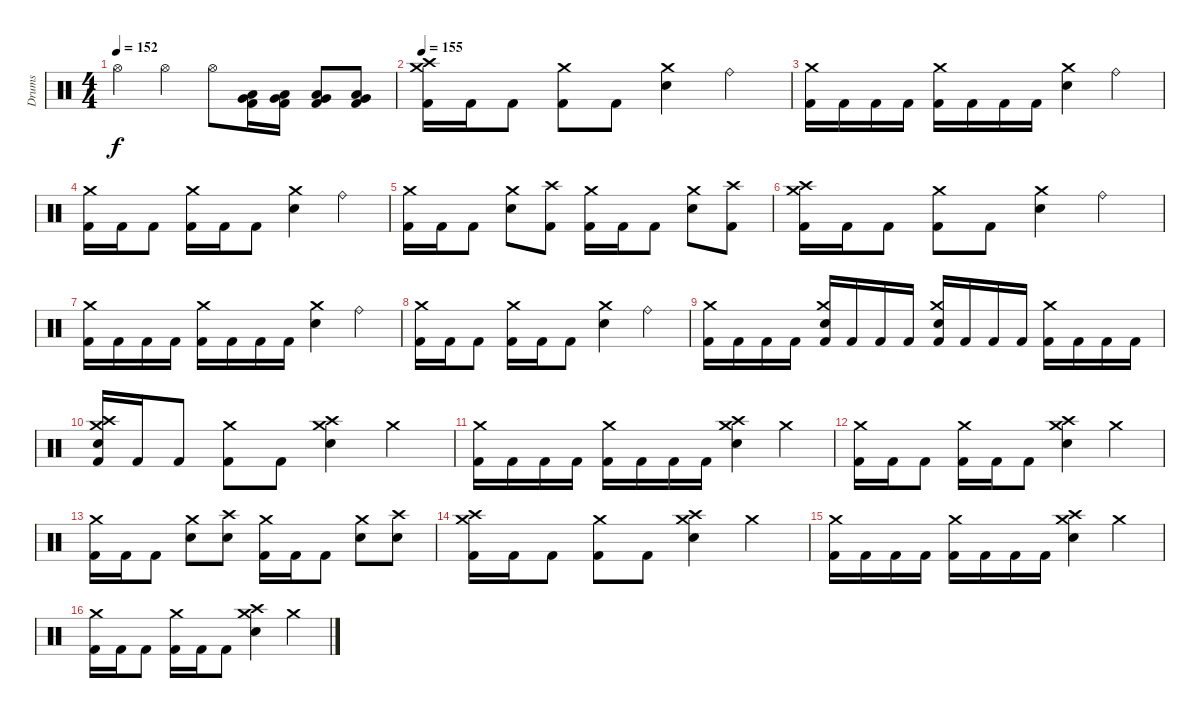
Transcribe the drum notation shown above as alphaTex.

\track ("Drums" "Drums") {instrument percussion}
\staff {score}
\articulation defaults
\ts (4 4)
\tempo 152
\clef neutral
\ks c "Hi-Hat (open)".4{dy f} "Hi-Hat (open)".4 "Hi-Hat (open)".8
("Very Low Tom (hit)" "Low Tom (hit)" "Kick (hit) 2").16 ("Very Low Tom (hit)" "Low Tom (hit)" "Kick (hit) 2").16 ("Very Low Tom (hit)" "Low Tom (hit)" "Kick (hit) 2").8 ("Very Low Tom (hit)" "Low Tom (hit)" "Kick (hit) 2").8 |
\tempo 155
("Crash medium (hit)" "Crash high (hit)" "Kick (hit) 2").16 "Kick (hit) 2".16 "Kick (hit) 2".8 ("Crash medium (hit)" "Kick (hit) 2").8 "Kick (hit) 2".8 ("Crash medium (hit)" "Snare (hit) 2").4 "Ride (bell)".4 |
("Crash medium (hit)" "Kick (hit) 2").16 "Kick (hit) 2".16 "Kick (hit) 2".16 "Kick (hit) 2".16 ("Crash medium (hit)" "Kick (hit) 2").16 "Kick (hit) 2".16 "Kick (hit) 2".16 "Kick (hit) 2".16 ("Crash medium (hit)" "Snare (hit) 2").4 "Ride (bell)".4 |
("Crash medium (hit)" "Kick (hit) 2").16 "Kick (hit) 2".16 "Kick (hit) 2".8 ("Crash medium (hit)" "Kick (hit) 2").16 "Kick (hit) 2".16 "Kick (hit) 2".8 ("Crash medium (hit)" "Snare (hit) 2").4 "Ride (bell)".4 |
("Crash medium (hit)" "Kick (hit) 2").16 "Kick (hit) 2".16 "Kick (hit) 2".8 ("Crash medium (hit)" "Snare (hit) 2").8 ("Crash high (hit)" "Kick (hit) 2").8 ("Crash medium (hit)" "Kick (hit) 2").16 "Kick (hit) 2".16 "Kick (hit) 2".8 ("Crash medium (hit)" "Snare (hit) 2").8 ("Crash high (hit)" "Kick (hit) 2").8 |
("Crash medium (hit)" "Crash high (hit)" "Kick (hit) 2").16 "Kick (hit) 2".16 "Kick (hit) 2".8 ("Crash medium (hit)" "Kick (hit) 2").8 "Kick (hit) 2".8 ("Crash medium (hit)" "Snare (hit) 2").4 "Ride (bell)".4 |
("Crash medium (hit)" "Kick (hit) 2").16 "Kick (hit) 2".16 "Kick (hit) 2".16 "Kick (hit) 2".16 ("Crash medium (hit)" "Kick (hit) 2").16 "Kick (hit) 2".16 "Kick (hit) 2".16 "Kick (hit) 2".16 ("Crash medium (hit)" "Snare (hit) 2").4 "Ride (bell)".4 |
("Crash medium (hit)" "Kick (hit) 2").16 "Kick (hit) 2".16 "Kick (hit) 2".8 ("Crash medium (hit)" "Kick (hit) 2").16 "Kick (hit) 2".16 "Kick (hit) 2".8 ("Crash medium (hit)" "Snare (hit) 2").4 "Ride (bell)".4 |
("Crash medium (hit)" "Kick (hit) 2").16 "Kick (hit) 2".16 "Kick (hit) 2".16 "Kick (hit) 2".16 ("Crash medium (hit)" "Snare (hit) 2" "Kick (hit) 2").16 "Kick (hit) 2".16 "Kick (hit) 2".16 "Kick (hit) 2".16 ("Crash medium (hit)" "Snare (hit) 2" "Kick (hit) 2").16 "Kick (hit) 2".16 "Kick (hit) 2".16 "Kick (hit) 2".16 ("Crash medium (hit)" "Kick (hit) 2").16 "Kick (hit) 2".16 "Kick (hit) 2".16 "Kick (hit) 2".16 |
("Crash medium (hit)" "Crash high (hit)" "Snare (hit) 2" "Kick (hit) 2").16 "Kick (hit) 2".16 "Kick (hit) 2".8 ("Crash medium (hit)" "Kick (hit) 2").8 "Kick (hit) 2".8 ("Crash medium (hit)" "Crash high (hit)" "Snare (hit) 2").4 "Crash medium (hit)".4 |
("Crash medium (hit)" "Kick (hit) 2").16 "Kick (hit) 2".16 "Kick (hit) 2".16 "Kick (hit) 2".16 ("Crash medium (hit)" "Kick (hit) 2").16 "Kick (hit) 2".16 "Kick (hit) 2".16 "Kick (hit) 2".16 ("Crash medium (hit)" "Crash high (hit)" "Snare (hit) 2").4 "Crash medium (hit)".4 |
("Crash medium (hit)" "Kick (hit) 2").16 "Kick (hit) 2".16 "Kick (hit) 2".8 ("Crash medium (hit)" "Kick (hit) 2").16 "Kick (hit) 2".16 "Kick (hit) 2".8 ("Crash medium (hit)" "Crash high (hit)" "Snare (hit) 2").4 "Crash medium (hit)".4 |
("Crash medium (hit)" "Kick (hit) 2").16 "Kick (hit) 2".16 "Kick (hit) 2".8 ("Crash medium (hit)" "Snare (hit) 2").8 ("Crash high (hit)" "Snare (hit) 2").8 ("Crash medium (hit)" "Kick (hit) 2").16 "Kick (hit) 2".16 "Kick (hit) 2".8 ("Crash medium (hit)" "Snare (hit) 2").8 ("Crash high (hit)" "Snare (hit) 2").8 |
("Crash medium (hit)" "Crash high (hit)" "Kick (hit) 2").16 "Kick (hit) 2".16 "Kick (hit) 2".8 ("Crash medium (hit)" "Kick (hit) 2").8 "Kick (hit) 2".8 ("Crash medium (hit)" "Crash high (hit)" "Snare (hit) 2").4 "Crash medium (hit)".4 |
("Crash medium (hit)" "Kick (hit) 2").16 "Kick (hit) 2".16 "Kick (hit) 2".16 "Kick (hit) 2".16 ("Crash medium (hit)" "Kick (hit) 2").16 "Kick (hit) 2".16 "Kick (hit) 2".16 "Kick (hit) 2".16 ("Crash medium (hit)" "Crash high (hit)" "Snare (hit) 2").4 "Crash medium (hit)".4 |
("Crash medium (hit)" "Kick (hit) 2").16 "Kick (hit) 2".16 "Kick (hit) 2".8 ("Crash medium (hit)" "Kick (hit) 2").16 "Kick (hit) 2".16 "Kick (hit) 2".8 ("Crash medium (hit)" "Crash high (hit)" "Snare (hit) 2").4 "Crash medium (hit)".4
